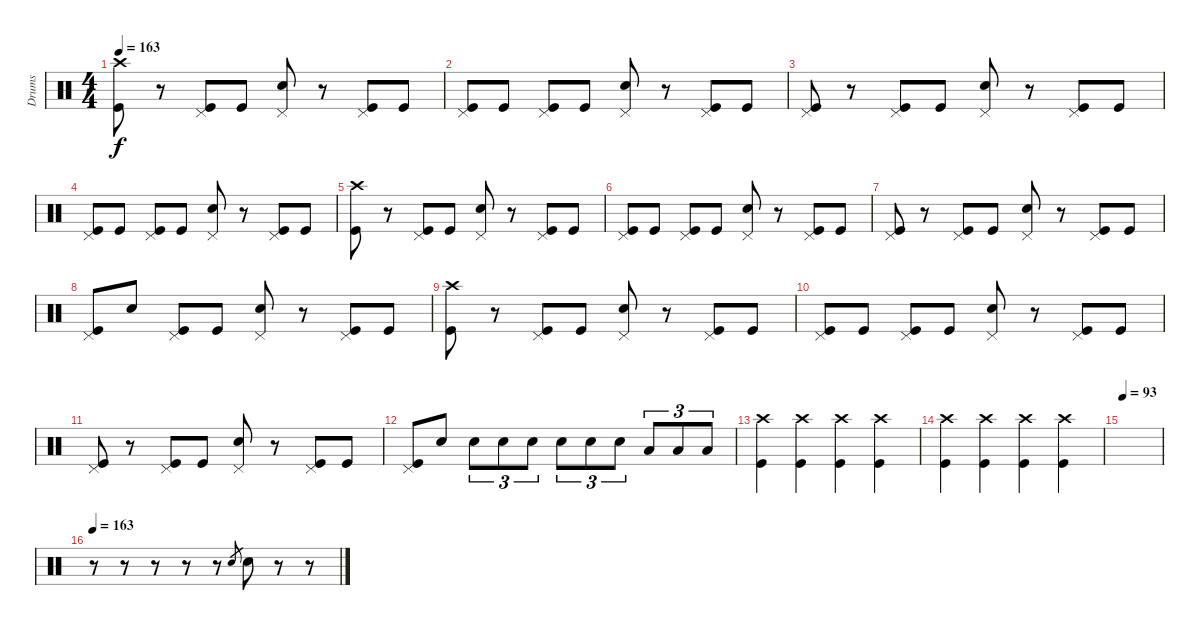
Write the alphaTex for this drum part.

\track ("Drums" "Drums") {instrument percussion}
\staff {score}
\articulation defaults
\ts (4 4)
\tempo 163
\clef neutral
\ks c
("Crash high (hit)" "Kick (hit)").8{dy f} r.8 ("Pedal Hi-Hat (hit)" "Kick (hit)").8 "Kick (hit)".8 ("Pedal Hi-Hat (hit)" "Snare (hit) 2").8 r.8 ("Pedal Hi-Hat (hit)" "Kick (hit)").8 "Kick (hit)".8 |
("Pedal Hi-Hat (hit)" "Kick (hit)").8 "Kick (hit)".8 ("Pedal Hi-Hat (hit)" "Kick (hit)").8 "Kick (hit)".8 ("Pedal Hi-Hat (hit)" "Snare (hit) 2").8 r.8 ("Pedal Hi-Hat (hit)" "Kick (hit)").8 "Kick (hit)".8 |
("Pedal Hi-Hat (hit)" "Kick (hit)").8 r.8 ("Pedal Hi-Hat (hit)" "Kick (hit)").8 "Kick (hit)".8 ("Pedal Hi-Hat (hit)" "Snare (hit) 2").8 r.8 ("Pedal Hi-Hat (hit)" "Kick (hit)").8 "Kick (hit)".8 |
("Pedal Hi-Hat (hit)" "Kick (hit)").8 "Kick (hit)".8 ("Pedal Hi-Hat (hit)" "Kick (hit)").8 "Kick (hit)".8 ("Pedal Hi-Hat (hit)" "Snare (hit) 2").8 r.8 ("Pedal Hi-Hat (hit)" "Kick (hit)").8 "Kick (hit)".8 |
("Crash high (hit)" "Kick (hit)").8 r.8 ("Pedal Hi-Hat (hit)" "Kick (hit)").8 "Kick (hit)".8 ("Pedal Hi-Hat (hit)" "Snare (hit) 2").8 r.8 ("Pedal Hi-Hat (hit)" "Kick (hit)").8 "Kick (hit)".8 |
("Pedal Hi-Hat (hit)" "Kick (hit)").8 "Kick (hit)".8 ("Pedal Hi-Hat (hit)" "Kick (hit)").8 "Kick (hit)".8 ("Pedal Hi-Hat (hit)" "Snare (hit) 2").8 r.8 ("Pedal Hi-Hat (hit)" "Kick (hit)").8 "Kick (hit)".8 |
("Pedal Hi-Hat (hit)" "Kick (hit)").8 r.8 ("Pedal Hi-Hat (hit)" "Kick (hit)").8 "Kick (hit)".8 ("Pedal Hi-Hat (hit)" "Snare (hit) 2").8 r.8 ("Pedal Hi-Hat (hit)" "Kick (hit)").8 "Kick (hit)".8 |
("Pedal Hi-Hat (hit)" "Kick (hit)").8 "Snare (hit) 2".8 ("Pedal Hi-Hat (hit)" "Kick (hit)").8 "Kick (hit)".8 ("Pedal Hi-Hat (hit)" "Snare (hit) 2").8 r.8 ("Pedal Hi-Hat (hit)" "Kick (hit)").8 "Kick (hit)".8 |
("Crash high (hit)" "Kick (hit)").8 r.8 ("Pedal Hi-Hat (hit)" "Kick (hit)").8 "Kick (hit)".8 ("Pedal Hi-Hat (hit)" "Snare (hit) 2").8 r.8 ("Pedal Hi-Hat (hit)" "Kick (hit)").8 "Kick (hit)".8 |
("Pedal Hi-Hat (hit)" "Kick (hit)").8 "Kick (hit)".8 ("Pedal Hi-Hat (hit)" "Kick (hit)").8 "Kick (hit)".8 ("Pedal Hi-Hat (hit)" "Snare (hit) 2").8 r.8 ("Pedal Hi-Hat (hit)" "Kick (hit)").8 "Kick (hit)".8 |
("Pedal Hi-Hat (hit)" "Kick (hit)").8 r.8 ("Pedal Hi-Hat (hit)" "Kick (hit)").8 "Kick (hit)".8 ("Pedal Hi-Hat (hit)" "Snare (hit) 2").8 r.8 ("Pedal Hi-Hat (hit)" "Kick (hit)").8 "Kick (hit)".8 |
("Pedal Hi-Hat (hit)" "Kick (hit)").8 "Snare (hit) 2".8 "Snare (hit) 2".8{tu (3 2)} "Snare (hit) 2".8{tu (3 2)} "Snare (hit) 2".8{tu (3 2)} "Snare (hit) 2".8{tu (3 2)} "Snare (hit) 2".8{tu (3 2)} "Snare (hit) 2".8{tu (3 2)} "Low Tom (hit)".8{tu (3 2)} "Low Tom (hit)".8{tu (3 2)} "Low Tom (hit)".8{tu (3 2)} |
("Crash high (hit)" "Kick (hit)").4 ("Crash high (hit)" "Kick (hit)").4 ("Crash high (hit)" "Kick (hit)").4 ("Crash high (hit)" "Kick (hit)").4 |
("Crash high (hit)" "Kick (hit)").4 ("Crash high (hit)" "Kick (hit)").4 ("Crash high (hit)" "Kick (hit)").4 ("Crash high (hit)" "Kick (hit)").4 |
\tempo 93
|
\tempo 163
r.8 r.8 r.8 r.8 r.8 "Electric Snare (hit)".8{gr} "Electric Snare (hit)".8 r.8 r.8
